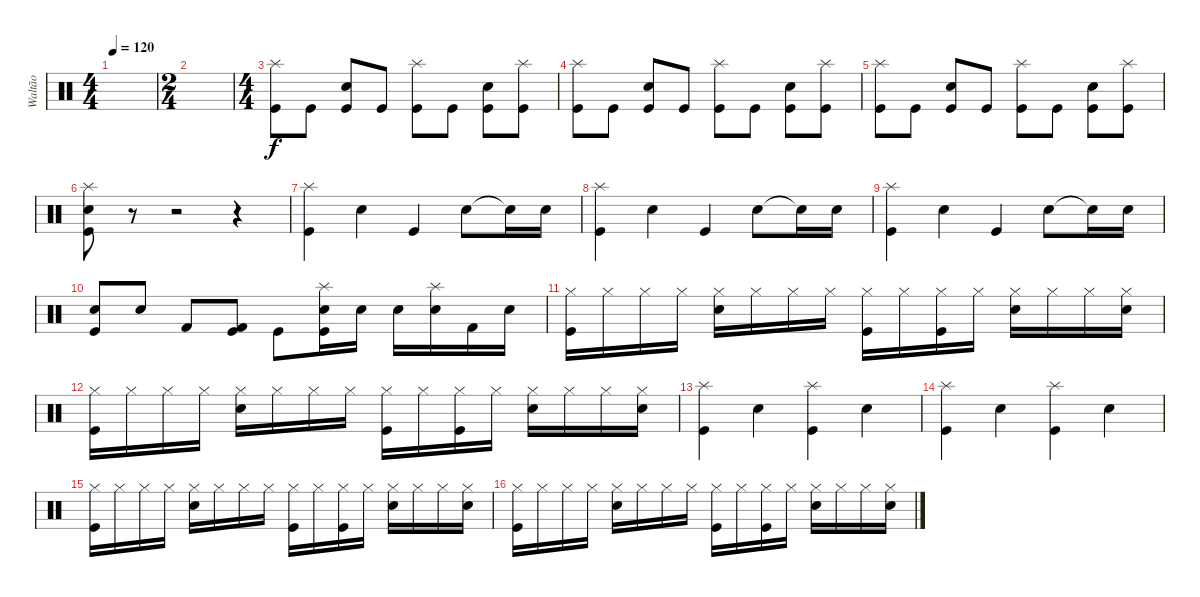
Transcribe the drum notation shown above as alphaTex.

\track ("Waltão" "Waltão") {instrument percussion}
\staff {score}
\articulation defaults
\ts (4 4)
\tempo 120
\clef neutral
\ks c
|
\ts (2 4)
|
\ts (4 4)
("Splash (hit)" "Kick (hit)").8 "Kick (hit)".8 ("Electric Snare (hit)" "Kick (hit)").8 "Kick (hit)".8 ("Splash (hit)" "Kick (hit)").8 "Kick (hit)".8 ("Electric Snare (hit)" "Kick (hit)").8 ("Splash (hit)" "Kick (hit)").8 |
("Splash (hit)" "Kick (hit)").8 "Kick (hit)".8 ("Electric Snare (hit)" "Kick (hit)").8 "Kick (hit)".8 ("Splash (hit)" "Kick (hit)").8 "Kick (hit)".8 ("Electric Snare (hit)" "Kick (hit)").8 ("Splash (hit)" "Kick (hit)").8 |
("Splash (hit)" "Kick (hit)").8 "Kick (hit)".8 ("Electric Snare (hit)" "Kick (hit)").8 "Kick (hit)".8 ("Splash (hit)" "Kick (hit)").8 "Kick (hit)".8 ("Electric Snare (hit)" "Kick (hit)").8 ("Splash (hit)" "Kick (hit)").8 |
("Splash (hit)" "Electric Snare (hit)" "Kick (hit)").8 r.8 r.2 r.4 |
("Splash (hit)" "Kick (hit)").4 "Electric Snare (hit)".4 "Kick (hit)".4 "Electric Snare (hit)".8 "Snare (hit)"{t}.16 "Electric Snare (hit)".16 |
("Splash (hit)" "Kick (hit)").4 "Electric Snare (hit)".4 "Kick (hit)".4 "Electric Snare (hit)".8 "Snare (hit)"{t}.16 "Electric Snare (hit)".16 |
("Splash (hit)" "Kick (hit)").4 "Electric Snare (hit)".4 "Kick (hit)".4 "Electric Snare (hit)".8 "Snare (hit)"{t}.16 "Electric Snare (hit)".16 |
("Electric Snare (hit)" "Kick (hit)").8 "Electric Snare (hit)".8 "Kick (hit) 2".8 ("Kick (hit) 2" "Kick (hit)").8 "Kick (hit)".8 ("Splash (hit)" "Electric Snare (hit)" "Kick (hit)").16 "Snare (hit) 2".16 "Electric Snare (hit)".16 ("Splash (hit)" "Snare (hit) 2").16 "Kick (hit) 2".16 "Snare (hit) 2".16 |
("Kick (hit)" "Hi-Hat (closed)").16 "Hi-Hat (closed)".16 "Hi-Hat (closed)".16 "Hi-Hat (closed)".16 ("Electric Snare (hit)" "Hi-Hat (closed)").16 "Hi-Hat (closed)".16 "Hi-Hat (closed)".16 "Hi-Hat (closed)".16 ("Kick (hit)" "Hi-Hat (closed)").16 "Hi-Hat (closed)".16 ("Kick (hit)" "Hi-Hat (closed)").16 "Hi-Hat (closed)".16 ("Electric Snare (hit)" "Hi-Hat (closed)").16 "Hi-Hat (closed)".16 "Hi-Hat (closed)".16 ("Electric Snare (hit)" "Hi-Hat (closed)").16 |
("Kick (hit)" "Hi-Hat (closed)").16 "Hi-Hat (closed)".16 "Hi-Hat (closed)".16 "Hi-Hat (closed)".16 ("Electric Snare (hit)" "Hi-Hat (closed)").16 "Hi-Hat (closed)".16 "Hi-Hat (closed)".16 "Hi-Hat (closed)".16 ("Kick (hit)" "Hi-Hat (closed)").16 "Hi-Hat (closed)".16 ("Kick (hit)" "Hi-Hat (closed)").16 "Hi-Hat (closed)".16 ("Electric Snare (hit)" "Hi-Hat (closed)").16 "Hi-Hat (closed)".16 "Hi-Hat (closed)".16 ("Electric Snare (hit)" "Hi-Hat (closed)").16 |
("Splash (hit)" "Kick (hit)").4 "Electric Snare (hit)".4 ("Splash (hit)" "Kick (hit)").4 "Electric Snare (hit)".4 |
("Splash (hit)" "Kick (hit)").4 "Electric Snare (hit)".4 ("Splash (hit)" "Kick (hit)").4 "Electric Snare (hit)".4 |
("Kick (hit)" "Hi-Hat (closed)").16 "Hi-Hat (closed)".16 "Hi-Hat (closed)".16 "Hi-Hat (closed)".16 ("Electric Snare (hit)" "Hi-Hat (closed)").16 "Hi-Hat (closed)".16 "Hi-Hat (closed)".16 "Hi-Hat (closed)".16 ("Kick (hit)" "Hi-Hat (closed)").16 "Hi-Hat (closed)".16 ("Kick (hit)" "Hi-Hat (closed)").16 "Hi-Hat (closed)".16 ("Electric Snare (hit)" "Hi-Hat (closed)").16 "Hi-Hat (closed)".16 "Hi-Hat (closed)".16 ("Electric Snare (hit)" "Hi-Hat (closed)").16 |
("Kick (hit)" "Hi-Hat (closed)").16 "Hi-Hat (closed)".16 "Hi-Hat (closed)".16 "Hi-Hat (closed)".16 ("Electric Snare (hit)" "Hi-Hat (closed)").16 "Hi-Hat (closed)".16 "Hi-Hat (closed)".16 "Hi-Hat (closed)".16 ("Kick (hit)" "Hi-Hat (closed)").16 "Hi-Hat (closed)".16 ("Kick (hit)" "Hi-Hat (closed)").16 "Hi-Hat (closed)".16 ("Electric Snare (hit)" "Hi-Hat (closed)").16 "Hi-Hat (closed)".16 "Hi-Hat (closed)".16 ("Electric Snare (hit)" "Hi-Hat (closed)").16
